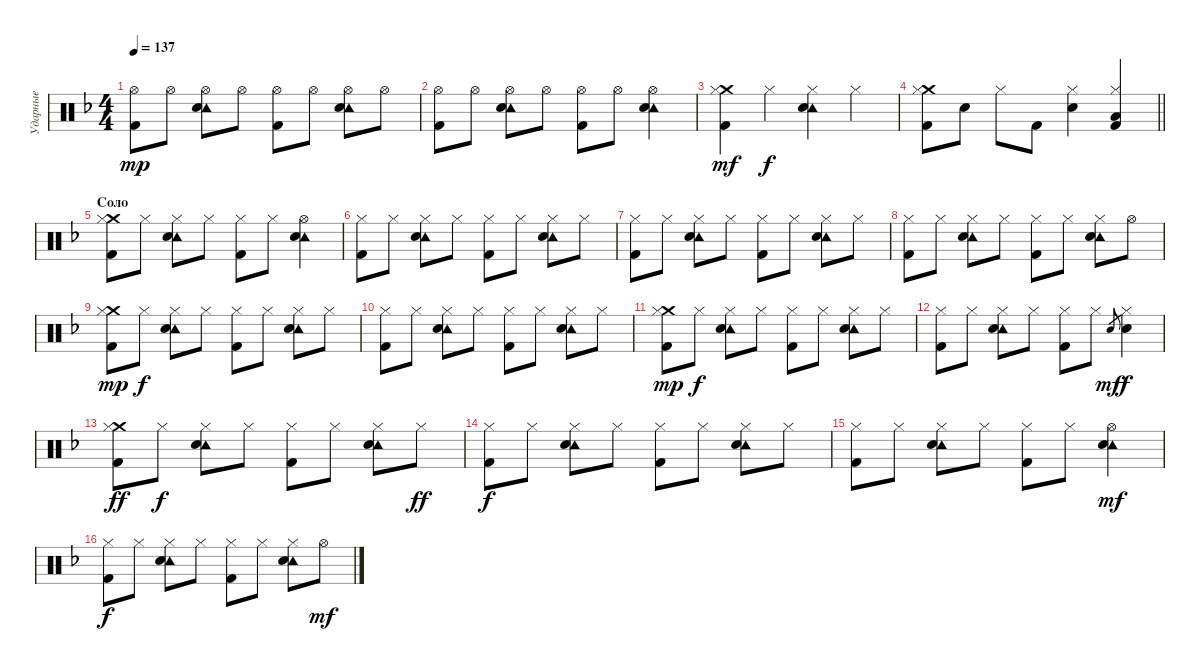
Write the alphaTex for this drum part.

\track ("Ударные" "Ударные") {instrument percussion}
\staff {score}
\articulation defaults
\ts (4 4)
\tempo 137
\clef neutral
\ks dminor
("Hi-Hat (open)" "Kick (hit) 2").8{dy mp} "Hi-Hat (open)".8 ("Tambourine (hit)" "Hi-Hat (open)" "Electric Snare (hit)").8 "Hi-Hat (open)".8 ("Hi-Hat (open)" "Kick (hit) 2").8 "Hi-Hat (open)".8 ("Tambourine (hit)" "Hi-Hat (open)" "Electric Snare (hit)").8 "Hi-Hat (open)".8 |
("Hi-Hat (open)" "Kick (hit) 2").8 "Hi-Hat (open)".8 ("Tambourine (hit)" "Hi-Hat (open)" "Electric Snare (hit)").8 "Hi-Hat (open)".8 ("Hi-Hat (open)" "Kick (hit) 2").8 "Hi-Hat (open)".8 ("Tambourine (hit)" "Hi-Hat (open)" "Electric Snare (hit)").4 |
("Crash medium (hit)" "Hi-Hat (closed)" "Kick (hit) 2").4{dy mf} "Hi-Hat (closed)".4{dy f} ("Tambourine (hit)" "Hi-Hat (closed)" "Electric Snare (hit)").4 "Hi-Hat (closed)".4 |
\barLineRight lightlight
("Crash medium (hit)" "Hi-Hat (closed)" "Kick (hit) 2").8 "Electric Snare (hit)".8 "Hi-Hat (closed)".8 "Kick (hit) 2".8 ("Hi-Hat (closed)" "Electric Snare (hit)").4 ("Hi-Hat (closed)" "Low Tom (hit)" "Kick (hit) 2").4 |
\section ("" "Соло")
("Crash medium (hit)" "Hi-Hat (closed)" "Kick (hit) 2").8 "Hi-Hat (closed)".8 ("Tambourine (hit)" "Hi-Hat (closed)" "Electric Snare (hit)").8 "Hi-Hat (closed)".8 ("Hi-Hat (closed)" "Kick (hit) 2").8 "Hi-Hat (closed)".8 ("Tambourine (hit)" "Hi-Hat (open)" "Electric Snare (hit)").4 |
("Hi-Hat (closed)" "Kick (hit) 2").8 "Hi-Hat (closed)".8 ("Tambourine (hit)" "Hi-Hat (closed)" "Electric Snare (hit)").8 "Hi-Hat (closed)".8 ("Hi-Hat (closed)" "Kick (hit) 2").8 "Hi-Hat (closed)".8 ("Tambourine (hit)" "Hi-Hat (closed)" "Electric Snare (hit)").8 "Hi-Hat (closed)".8 |
("Hi-Hat (closed)" "Kick (hit) 2").8 "Hi-Hat (closed)".8 ("Tambourine (hit)" "Hi-Hat (closed)" "Electric Snare (hit)").8 "Hi-Hat (closed)".8 ("Hi-Hat (closed)" "Kick (hit) 2").8 "Hi-Hat (closed)".8 ("Tambourine (hit)" "Hi-Hat (closed)" "Electric Snare (hit)").8 "Hi-Hat (closed)".8 |
("Hi-Hat (closed)" "Kick (hit) 2").8 "Hi-Hat (closed)".8 ("Tambourine (hit)" "Hi-Hat (closed)" "Electric Snare (hit)").8 "Hi-Hat (closed)".8 ("Hi-Hat (closed)" "Kick (hit) 2").8 "Hi-Hat (closed)".8 ("Tambourine (hit)" "Hi-Hat (closed)" "Electric Snare (hit)").8 "Hi-Hat (open)".8 |
("Crash medium (hit)" "Hi-Hat (closed)" "Kick (hit) 2").8{dy mp} "Hi-Hat (closed)".8{dy f} ("Tambourine (hit)" "Hi-Hat (closed)" "Electric Snare (hit)").8 "Hi-Hat (closed)".8 ("Hi-Hat (closed)" "Kick (hit) 2").8 "Hi-Hat (closed)".8 ("Tambourine (hit)" "Hi-Hat (closed)" "Electric Snare (hit)").8 "Hi-Hat (closed)".8 |
("Hi-Hat (closed)" "Kick (hit) 2").8 "Hi-Hat (closed)".8 ("Tambourine (hit)" "Hi-Hat (closed)" "Electric Snare (hit)").8 "Hi-Hat (closed)".8 ("Hi-Hat (closed)" "Kick (hit) 2").8 "Hi-Hat (closed)".8 ("Tambourine (hit)" "Hi-Hat (closed)" "Electric Snare (hit)").8 "Hi-Hat (closed)".8 |
("Crash medium (hit)" "Hi-Hat (closed)" "Kick (hit) 2").8{dy mp} "Hi-Hat (closed)".8{dy f} ("Tambourine (hit)" "Hi-Hat (closed)" "Electric Snare (hit)").8 "Hi-Hat (closed)".8 ("Hi-Hat (closed)" "Kick (hit) 2").8 "Hi-Hat (closed)".8 ("Tambourine (hit)" "Hi-Hat (closed)" "Electric Snare (hit)").8 "Hi-Hat (closed)".8 |
("Hi-Hat (closed)" "Kick (hit) 2").8 "Hi-Hat (closed)".8 ("Tambourine (hit)" "Hi-Hat (closed)" "Electric Snare (hit)").8 "Hi-Hat (closed)".8 ("Hi-Hat (closed)" "Kick (hit) 2").8 "Hi-Hat (closed)".8 "Electric Snare (hit)".8{gr dy mf} ("Hi-Hat (closed)" "Electric Snare (hit)").4{dy f} |
("Crash medium (hit)" "Hi-Hat (closed)" "Kick (hit) 2").8{dy ff} "Hi-Hat (closed)".8{dy f} ("Tambourine (hit)" "Hi-Hat (closed)" "Electric Snare (hit)").8 "Hi-Hat (closed)".8 ("Hi-Hat (closed)" "Kick (hit) 2").8 "Hi-Hat (closed)".8 ("Tambourine (hit)" "Hi-Hat (closed)" "Electric Snare (hit)").8 "Hi-Hat (closed)".8{dy ff} |
("Hi-Hat (closed)" "Kick (hit) 2").8{dy f} "Hi-Hat (closed)".8 ("Tambourine (hit)" "Hi-Hat (closed)" "Electric Snare (hit)").8 "Hi-Hat (closed)".8 ("Hi-Hat (closed)" "Kick (hit) 2").8 "Hi-Hat (closed)".8 ("Tambourine (hit)" "Hi-Hat (closed)" "Electric Snare (hit)").8 "Hi-Hat (closed)".8 |
("Hi-Hat (closed)" "Kick (hit) 2").8 "Hi-Hat (closed)".8 ("Tambourine (hit)" "Hi-Hat (closed)" "Electric Snare (hit)").8 "Hi-Hat (closed)".8 ("Hi-Hat (closed)" "Kick (hit) 2").8 "Hi-Hat (closed)".8 ("Tambourine (hit)" "Hi-Hat (open)" "Electric Snare (hit)").4{dy mf} |
("Hi-Hat (closed)" "Kick (hit) 2").8{dy f} "Hi-Hat (closed)".8 ("Tambourine (hit)" "Hi-Hat (closed)" "Electric Snare (hit)").8 "Hi-Hat (closed)".8 ("Hi-Hat (closed)" "Kick (hit) 2").8 "Hi-Hat (closed)".8 ("Tambourine (hit)" "Hi-Hat (closed)" "Electric Snare (hit)").8 "Hi-Hat (open)".8{dy mf}
